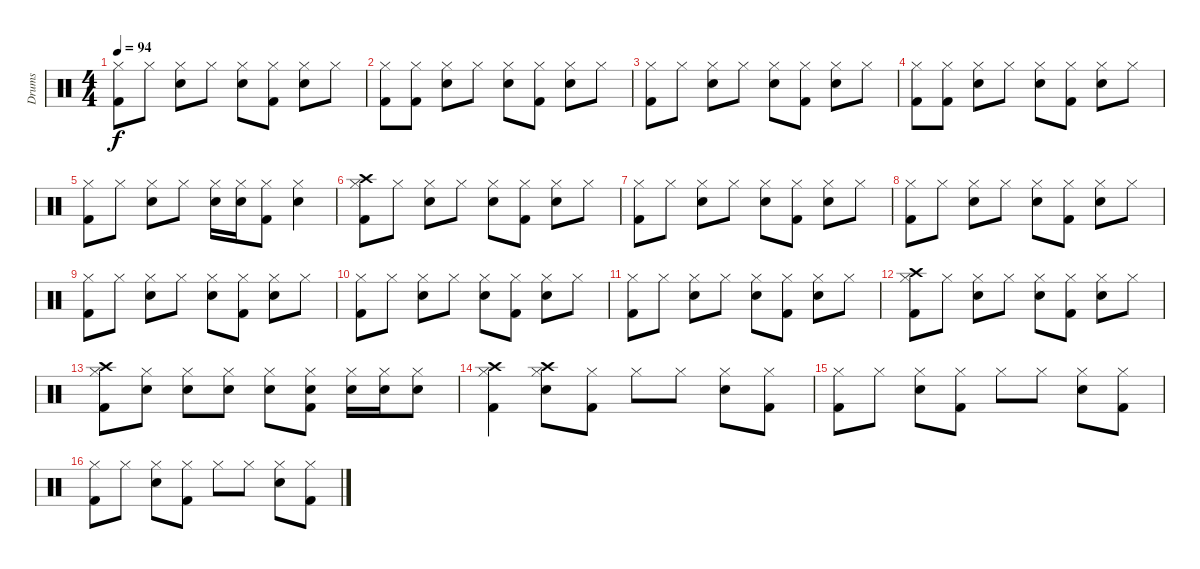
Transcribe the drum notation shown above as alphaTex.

\track ("Drums" "Drums") {instrument percussion}
\staff {score}
\articulation defaults
\ts (4 4)
\tempo 94
\clef neutral
\ks c
("Hi-Hat (closed)" "Kick (hit) 2").8{dy f} "Hi-Hat (closed)".8 ("Hi-Hat (closed)" "Electric Snare (hit)").8 "Hi-Hat (closed)".8 ("Hi-Hat (closed)" "Electric Snare (hit)").8 ("Hi-Hat (closed)" "Kick (hit) 2").8 ("Hi-Hat (closed)" "Electric Snare (hit)").8 "Hi-Hat (closed)".8 |
("Hi-Hat (closed)" "Kick (hit) 2").8 ("Hi-Hat (closed)" "Kick (hit) 2").8 ("Hi-Hat (closed)" "Electric Snare (hit)").8 "Hi-Hat (closed)".8 ("Hi-Hat (closed)" "Electric Snare (hit)").8 ("Hi-Hat (closed)" "Kick (hit) 2").8 ("Hi-Hat (closed)" "Electric Snare (hit)").8 "Hi-Hat (closed)".8 |
("Hi-Hat (closed)" "Kick (hit) 2").8 "Hi-Hat (closed)".8 ("Hi-Hat (closed)" "Electric Snare (hit)").8 "Hi-Hat (closed)".8 ("Hi-Hat (closed)" "Electric Snare (hit)").8 ("Hi-Hat (closed)" "Kick (hit) 2").8 ("Hi-Hat (closed)" "Electric Snare (hit)").8 "Hi-Hat (closed)".8 |
("Hi-Hat (closed)" "Kick (hit) 2").8 ("Hi-Hat (closed)" "Kick (hit) 2").8 ("Hi-Hat (closed)" "Electric Snare (hit)").8 "Hi-Hat (closed)".8 ("Hi-Hat (closed)" "Electric Snare (hit)").8 ("Hi-Hat (closed)" "Kick (hit) 2").8 ("Hi-Hat (closed)" "Electric Snare (hit)").8 "Hi-Hat (closed)".8 |
("Hi-Hat (closed)" "Kick (hit) 2").8 "Hi-Hat (closed)".8 ("Hi-Hat (closed)" "Electric Snare (hit)").8 "Hi-Hat (closed)".8 ("Hi-Hat (closed)" "Electric Snare (hit)").16 ("Hi-Hat (closed)" "Electric Snare (hit)").16 ("Hi-Hat (closed)" "Kick (hit) 2").8 ("Hi-Hat (closed)" "Electric Snare (hit)").4 |
("Crash high (hit)" "Hi-Hat (closed)" "Kick (hit) 2").8 "Hi-Hat (closed)".8 ("Hi-Hat (closed)" "Electric Snare (hit)").8 "Hi-Hat (closed)".8 ("Hi-Hat (closed)" "Electric Snare (hit)").8 ("Hi-Hat (closed)" "Kick (hit) 2").8 ("Hi-Hat (closed)" "Electric Snare (hit)").8 "Hi-Hat (closed)".8 |
("Hi-Hat (closed)" "Kick (hit) 2").8 "Hi-Hat (closed)".8 ("Hi-Hat (closed)" "Electric Snare (hit)").8 "Hi-Hat (closed)".8 ("Hi-Hat (closed)" "Electric Snare (hit)").8 ("Hi-Hat (closed)" "Kick (hit) 2").8 ("Hi-Hat (closed)" "Electric Snare (hit)").8 "Hi-Hat (closed)".8 |
("Hi-Hat (closed)" "Kick (hit) 2").8 "Hi-Hat (closed)".8 ("Hi-Hat (closed)" "Electric Snare (hit)").8 "Hi-Hat (closed)".8 ("Hi-Hat (closed)" "Electric Snare (hit)").8 ("Hi-Hat (closed)" "Kick (hit) 2").8 ("Hi-Hat (closed)" "Electric Snare (hit)").8 "Hi-Hat (closed)".8 |
("Hi-Hat (closed)" "Kick (hit) 2").8 "Hi-Hat (closed)".8 ("Hi-Hat (closed)" "Electric Snare (hit)").8 "Hi-Hat (closed)".8 ("Hi-Hat (closed)" "Electric Snare (hit)").8 ("Hi-Hat (closed)" "Kick (hit) 2").8 ("Hi-Hat (closed)" "Electric Snare (hit)").8 "Hi-Hat (closed)".8 |
("Hi-Hat (closed)" "Kick (hit) 2").8 "Hi-Hat (closed)".8 ("Hi-Hat (closed)" "Electric Snare (hit)").8 "Hi-Hat (closed)".8 ("Hi-Hat (closed)" "Electric Snare (hit)").8 ("Hi-Hat (closed)" "Kick (hit) 2").8 ("Hi-Hat (closed)" "Electric Snare (hit)").8 "Hi-Hat (closed)".8 |
("Hi-Hat (closed)" "Kick (hit) 2").8 "Hi-Hat (closed)".8 ("Hi-Hat (closed)" "Electric Snare (hit)").8 "Hi-Hat (closed)".8 ("Hi-Hat (closed)" "Electric Snare (hit)").8 ("Hi-Hat (closed)" "Kick (hit) 2").8 ("Hi-Hat (closed)" "Electric Snare (hit)").8 "Hi-Hat (closed)".8 |
("Crash high (hit)" "Hi-Hat (closed)" "Kick (hit) 2").8 "Hi-Hat (closed)".8 ("Hi-Hat (closed)" "Electric Snare (hit)").8 "Hi-Hat (closed)".8 ("Hi-Hat (closed)" "Electric Snare (hit)").8 ("Hi-Hat (closed)" "Kick (hit) 2").8 ("Hi-Hat (closed)" "Electric Snare (hit)").8 "Hi-Hat (closed)".8 |
("Crash high (hit)" "Hi-Hat (closed)" "Kick (hit) 2").8 ("Hi-Hat (closed)" "Electric Snare (hit)").8 ("Hi-Hat (closed)" "Electric Snare (hit)").8 ("Hi-Hat (closed)" "Electric Snare (hit)").8 ("Hi-Hat (closed)" "Electric Snare (hit)").8 ("Hi-Hat (closed)" "Electric Snare (hit)" "Kick (hit) 2").8 ("Hi-Hat (closed)" "Electric Snare (hit)").16 ("Hi-Hat (closed)" "Electric Snare (hit)").16 ("Hi-Hat (closed)" "Electric Snare (hit)").8 |
("Crash high (hit)" "Hi-Hat (closed)" "Kick (hit) 2").4 ("Crash high (hit)" "Hi-Hat (closed)" "Electric Snare (hit)").8 ("Hi-Hat (closed)" "Kick (hit) 2").8 "Hi-Hat (closed)".8 "Hi-Hat (closed)".8 ("Hi-Hat (closed)" "Electric Snare (hit)").8 ("Hi-Hat (closed)" "Kick (hit) 2").8 |
("Hi-Hat (closed)" "Kick (hit) 2").8 "Hi-Hat (closed)".8 ("Hi-Hat (closed)" "Electric Snare (hit)").8 ("Hi-Hat (closed)" "Kick (hit) 2").8 "Hi-Hat (closed)".8 "Hi-Hat (closed)".8 ("Hi-Hat (closed)" "Electric Snare (hit)").8 ("Hi-Hat (closed)" "Kick (hit) 2").8 |
("Hi-Hat (closed)" "Kick (hit) 2").8 "Hi-Hat (closed)".8 ("Hi-Hat (closed)" "Electric Snare (hit)").8 ("Hi-Hat (closed)" "Kick (hit) 2").8 "Hi-Hat (closed)".8 "Hi-Hat (closed)".8 ("Hi-Hat (closed)" "Electric Snare (hit)").8 ("Hi-Hat (closed)" "Kick (hit) 2").8
